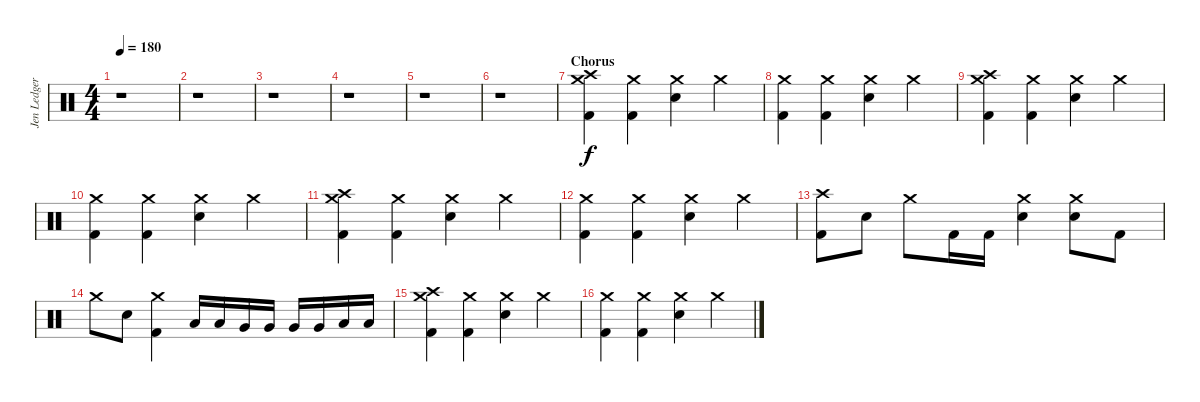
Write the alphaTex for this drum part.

\track ("Jen Ledger" "Jen Ledger") {instrument percussion}
\staff {score}
\articulation defaults
\ts (4 4)
\tempo 180
\clef neutral
\ks c
r.1{dy f} |
r.1 |
r.1 |
r.1 |
r.1 |
r.1 |
\section ("" "Chorus")
("Crash high (hit)" "Crash medium (hit)" "Kick (hit) 2").4 ("Crash medium (hit)" "Kick (hit) 2").4 ("Crash medium (hit)" "Electric Snare (hit)").4 "Crash medium (hit)".4 |
("Crash medium (hit)" "Kick (hit) 2").4 ("Crash medium (hit)" "Kick (hit) 2").4 ("Crash medium (hit)" "Electric Snare (hit)").4 "Crash medium (hit)".4 |
("Crash high (hit)" "Crash medium (hit)" "Kick (hit) 2").4 ("Crash medium (hit)" "Kick (hit) 2").4 ("Crash medium (hit)" "Electric Snare (hit)").4 "Crash medium (hit)".4 |
("Crash medium (hit)" "Kick (hit) 2").4 ("Crash medium (hit)" "Kick (hit) 2").4 ("Crash medium (hit)" "Electric Snare (hit)").4 "Crash medium (hit)".4 |
("Crash high (hit)" "Crash medium (hit)" "Kick (hit) 2").4 ("Crash medium (hit)" "Kick (hit) 2").4 ("Crash medium (hit)" "Electric Snare (hit)").4 "Crash medium (hit)".4 |
("Crash medium (hit)" "Kick (hit) 2").4 ("Crash medium (hit)" "Kick (hit) 2").4 ("Crash medium (hit)" "Electric Snare (hit)").4 "Crash medium (hit)".4 |
("Crash high (hit)" "Kick (hit) 2").8 "Electric Snare (hit)".8 "Crash medium (hit)".8 "Kick (hit) 2".16 "Kick (hit) 2".16 ("Crash medium (hit)" "Electric Snare (hit)").4 ("Crash medium (hit)" "Electric Snare (hit)").8 "Kick (hit) 2".8 |
"Crash medium (hit)".8 "Electric Snare (hit)".8 ("Crash medium (hit)" "Kick (hit) 2").4 "Low Tom (hit)".16 "Low Tom (hit)".16 "Very Low Tom (hit)".16 "Very Low Tom (hit)".16 "Very Low Tom (hit)".16 "Very Low Tom (hit)".16 "Low Floor Tom (hit)".16 "Low Floor Tom (hit)".16 |
("Crash high (hit)" "Crash medium (hit)" "Kick (hit) 2").4 ("Crash medium (hit)" "Kick (hit) 2").4 ("Crash medium (hit)" "Electric Snare (hit)").4 "Crash medium (hit)".4 |
("Crash medium (hit)" "Kick (hit) 2").4 ("Crash medium (hit)" "Kick (hit) 2").4 ("Crash medium (hit)" "Electric Snare (hit)").4 "Crash medium (hit)".4
